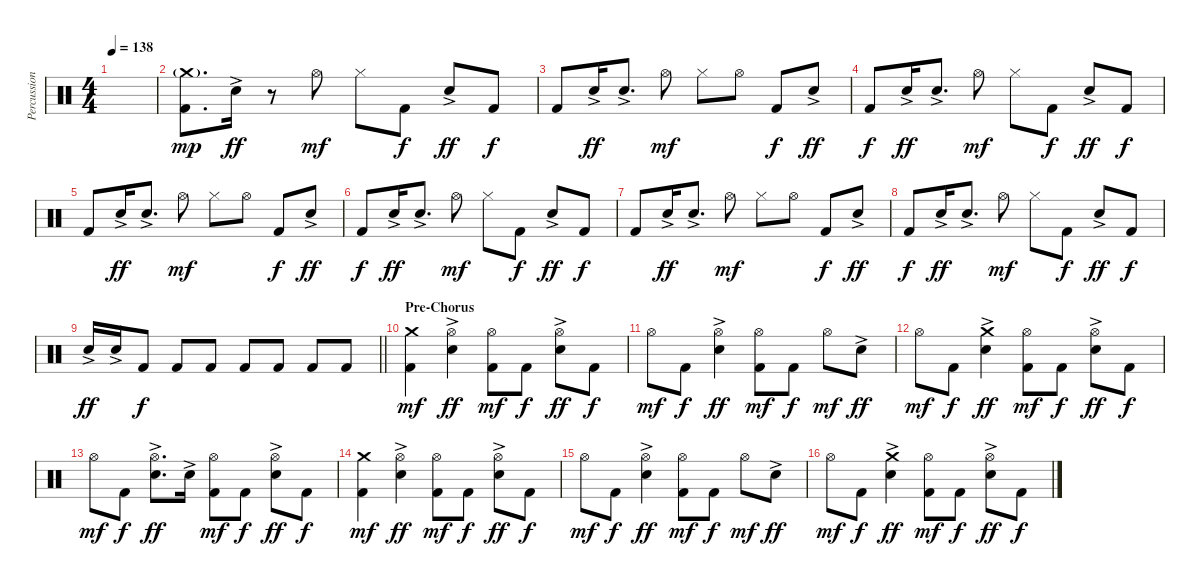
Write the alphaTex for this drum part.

\track ("Percussion" "Percussion") {instrument percussion}
\staff {score}
\articulation defaults
\ts (4 4)
\tempo 138
\clef neutral
\ks c
|
("Crash medium (hit)"{g} "Kick (hit) 2").8{d dy mp} "Electric Snare (hit)"{ac}.16{dy ff} r.8 "Hi-Hat (open)".8{dy mf} "Hi-Hat (closed)".8 "Kick (hit) 2".8{dy f} "Electric Snare (hit)"{ac}.8{dy ff} "Kick (hit) 2".8{dy f} |
"Kick (hit) 2".8 "Electric Snare (hit)"{ac}.16{dy ff} "Electric Snare (hit)"{ac}.8{d} "Hi-Hat (open)".8{dy mf} "Hi-Hat (closed)".8 "Hi-Hat (open)".8 "Kick (hit) 2".8{dy f} "Electric Snare (hit)"{ac}.8{dy ff} |
"Kick (hit) 2".8{dy f} "Electric Snare (hit)"{ac}.16{dy ff} "Electric Snare (hit)"{ac}.8{d} "Hi-Hat (open)".8{dy mf} "Hi-Hat (closed)".8 "Kick (hit) 2".8{dy f} "Electric Snare (hit)"{ac}.8{dy ff} "Kick (hit) 2".8{dy f} |
"Kick (hit) 2".8 "Electric Snare (hit)"{ac}.16{dy ff} "Electric Snare (hit)"{ac}.8{d} "Hi-Hat (open)".8{dy mf} "Hi-Hat (closed)".8 "Hi-Hat (open)".8 "Kick (hit) 2".8{dy f} "Electric Snare (hit)"{ac}.8{dy ff} |
"Kick (hit) 2".8{dy f} "Electric Snare (hit)"{ac}.16{dy ff} "Electric Snare (hit)"{ac}.8{d} "Hi-Hat (open)".8{dy mf} "Hi-Hat (closed)".8 "Kick (hit) 2".8{dy f} "Electric Snare (hit)"{ac}.8{dy ff} "Kick (hit) 2".8{dy f} |
"Kick (hit) 2".8 "Electric Snare (hit)"{ac}.16{dy ff} "Electric Snare (hit)"{ac}.8{d} "Hi-Hat (open)".8{dy mf} "Hi-Hat (closed)".8 "Hi-Hat (open)".8 "Kick (hit) 2".8{dy f} "Electric Snare (hit)"{ac}.8{dy ff} |
"Kick (hit) 2".8{dy f} "Electric Snare (hit)"{ac}.16{dy ff} "Electric Snare (hit)"{ac}.8{d} "Hi-Hat (open)".8{dy mf} "Hi-Hat (closed)".8 "Kick (hit) 2".8{dy f} "Electric Snare (hit)"{ac}.8{dy ff} "Kick (hit) 2".8{dy f} |
\barLineRight lightlight "Electric Snare (hit)"{ac}.16{dy ff} "Electric Snare (hit)"{ac}.16 "Kick (hit) 2".8{dy f} "Kick (hit) 2".8 "Kick (hit) 2".8 "Kick (hit) 2".8 "Kick (hit) 2".8 "Kick (hit) 2".8 "Kick (hit) 2".8
|
\section ("" "Pre-Chorus")
("Crash medium (hit)" "Kick (hit) 2").4{dy mf} ("Hi-Hat (open)" "Electric Snare (hit)"{ac}).4{dy ff} ("Hi-Hat (open)" "Kick (hit) 2").8{dy mf} "Kick (hit) 2".8{dy f} ("Hi-Hat (open)" "Electric Snare (hit)"{ac}).8{dy ff} "Kick (hit) 2".8{dy f} |
"Hi-Hat (open)".8{dy mf} "Kick (hit) 2".8{dy f} ("Hi-Hat (open)" "Electric Snare (hit)"{ac}).4{dy ff} ("Hi-Hat (open)" "Kick (hit) 2").8{dy mf} "Kick (hit) 2".8{dy f} "Hi-Hat (open)".8{dy mf} "Electric Snare (hit)"{ac}.8{dy ff} |
"Hi-Hat (open)".8{dy mf} "Kick (hit) 2".8{dy f} ("Crash medium (hit)" "Electric Snare (hit)"{ac}).4{dy ff} ("Hi-Hat (open)" "Kick (hit) 2").8{dy mf} "Kick (hit) 2".8{dy f} ("Hi-Hat (open)" "Electric Snare (hit)"{ac}).8{dy ff} "Kick (hit) 2".8{dy f} |
"Hi-Hat (open)".8{dy mf} "Kick (hit) 2".8{dy f} ("Hi-Hat (open)" "Electric Snare (hit)"{ac}).8{d dy ff} "Electric Snare (hit)"{ac}.16 ("Hi-Hat (open)" "Kick (hit) 2").8{dy mf} "Kick (hit) 2".8{dy f} ("Hi-Hat (open)" "Electric Snare (hit)"{ac}).8{dy ff} "Kick (hit) 2".8{dy f} |
("Crash medium (hit)" "Kick (hit) 2").4{dy mf} ("Hi-Hat (open)" "Electric Snare (hit)"{ac}).4{dy ff} ("Hi-Hat (open)" "Kick (hit) 2").8{dy mf} "Kick (hit) 2".8{dy f} ("Hi-Hat (open)" "Electric Snare (hit)"{ac}).8{dy ff} "Kick (hit) 2".8{dy f} |
"Hi-Hat (open)".8{dy mf} "Kick (hit) 2".8{dy f} ("Hi-Hat (open)" "Electric Snare (hit)"{ac}).4{dy ff} ("Hi-Hat (open)" "Kick (hit) 2").8{dy mf} "Kick (hit) 2".8{dy f} "Hi-Hat (open)".8{dy mf} "Electric Snare (hit)"{ac}.8{dy ff} |
"Hi-Hat (open)".8{dy mf} "Kick (hit) 2".8{dy f} ("Crash medium (hit)" "Electric Snare (hit)"{ac}).4{dy ff} ("Hi-Hat (open)" "Kick (hit) 2").8{dy mf} "Kick (hit) 2".8{dy f} ("Hi-Hat (open)" "Electric Snare (hit)"{ac}).8{dy ff} "Kick (hit) 2".8{dy f}
